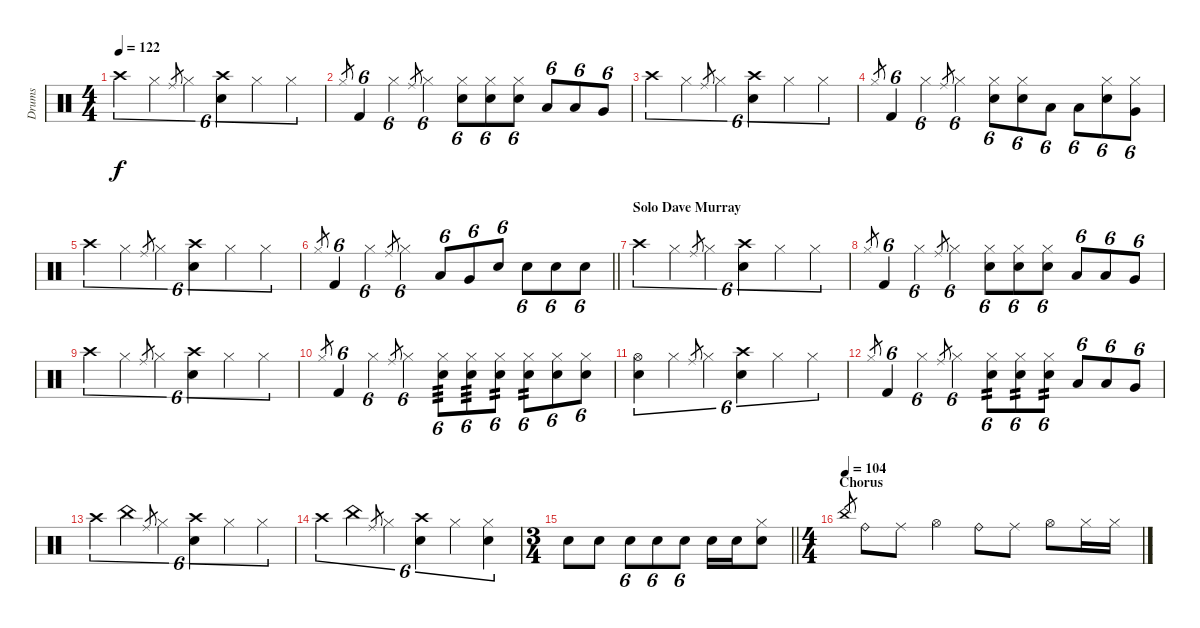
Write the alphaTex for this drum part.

\track ("Drums" "Drums") {instrument percussion}
\staff {score}
\articulation defaults
\ts (4 4)
\tempo 122
\clef neutral
\ks c "Crash high (hit)".4{tu (6 4) dy f} "Hi-Hat (closed)".4{tu (6 4)} "Ride (middle)".8{gr} "Hi-Hat (closed)".4{tu (6 4)}
("Crash high (hit)" "Snare (hit) 2").4{tu (6 4)} "Hi-Hat (closed)".4{tu (6 4)} "Hi-Hat (closed)".4{tu (6 4)} |
"Hi-Hat (closed)".8{gr} "Kick (hit) 2".4{tu (6 4)} "Hi-Hat (closed)".4{tu (6 4)} "Ride (middle)".8{gr} "Hi-Hat (closed)".4{tu (6 4)} ("Hi-Hat (closed)" "Snare (hit) 2").8{tu (6 4)} ("Hi-Hat (closed)" "Snare (hit) 2").8{tu (6 4)} ("Hi-Hat (closed)" "Snare (hit) 2").8{tu (6 4)} "Low Tom (hit)".8{tu (6 4)} "Low Tom (hit)".8{tu (6 4)} "Very Low Tom (hit)".8{tu (6 4)} |
"Crash high (hit)".4{tu (6 4)} "Hi-Hat (closed)".4{tu (6 4)} "Ride (middle)".8{gr} "Hi-Hat (closed)".4{tu (6 4)} ("Crash high (hit)" "Snare (hit) 2").4{tu (6 4)} "Hi-Hat (closed)".4{tu (6 4)} "Hi-Hat (closed)".4{tu (6 4)} |
"Hi-Hat (closed)".8{gr} "Kick (hit) 2".4{tu (6 4)} "Hi-Hat (closed)".4{tu (6 4)} "Ride (middle)".8{gr} "Hi-Hat (closed)".4{tu (6 4)} ("Hi-Hat (closed)" "Snare (hit) 2").8{tu (6 4)} ("Hi-Hat (closed)" "Snare (hit) 2").8{tu (6 4)} "Low Tom (hit)".8{tu (6 4)} "Low Tom (hit)".8{tu (6 4)} ("Hi-Hat (closed)" "Snare (hit) 2").8{tu (6 4)} ("Hi-Hat (closed)" "Very Low Tom (hit)").8{tu (6 4)} |
"Crash high (hit)".4{tu (6 4)} "Hi-Hat (closed)".4{tu (6 4)} "Ride (middle)".8{gr} "Hi-Hat (closed)".4{tu (6 4)} ("Crash high (hit)" "Snare (hit) 2").4{tu (6 4)} "Hi-Hat (closed)".4{tu (6 4)} "Hi-Hat (closed)".4{tu (6 4)} |
\barLineRight lightlight "Hi-Hat (closed)".8{gr} "Kick (hit) 2".4{tu (6 4)} "Hi-Hat (closed)".4{tu (6 4)} "Ride (middle)".8{gr} "Hi-Hat (closed)".4{tu (6 4)} "Low Tom (hit)".8{tu (6 4)} "Very Low Tom (hit)".8{tu (6 4)} "Snare (hit) 2".8{tu (6 4)} "Snare (hit) 2".8{tu (6 4)} "Snare (hit) 2".8{tu (6 4)} "Snare (hit) 2".8{tu (6 4)}
|
\section ("" "Solo Dave Murray")
"Crash high (hit)".4{tu (6 4)} "Hi-Hat (closed)".4{tu (6 4)} "Ride (middle)".8{gr} "Hi-Hat (closed)".4{tu (6 4)} ("Crash high (hit)" "Snare (hit) 2").4{tu (6 4)} "Hi-Hat (closed)".4{tu (6 4)} "Hi-Hat (closed)".4{tu (6 4)} |
"Hi-Hat (closed)".8{gr} "Kick (hit) 2".4{tu (6 4)} "Hi-Hat (closed)".4{tu (6 4)} "Ride (middle)".8{gr} "Hi-Hat (closed)".4{tu (6 4)} ("Hi-Hat (closed)" "Snare (hit) 2").8{tu (6 4)} ("Hi-Hat (closed)" "Snare (hit) 2").8{tu (6 4)} ("Hi-Hat (closed)" "Snare (hit) 2").8{tu (6 4)} "Low Tom (hit)".8{tu (6 4)} "Low Tom (hit)".8{tu (6 4)} "Very Low Tom (hit)".8{tu (6 4)} |
"Crash high (hit)".4{tu (6 4)} "Hi-Hat (closed)".4{tu (6 4)} "Ride (middle)".8{gr} "Hi-Hat (closed)".4{tu (6 4)} ("Crash high (hit)" "Snare (hit) 2").4{tu (6 4)} "Hi-Hat (closed)".4{tu (6 4)} "Hi-Hat (closed)".4{tu (6 4)} |
"Hi-Hat (closed)".8{gr} "Kick (hit) 2".4{tu (6 4)} "Hi-Hat (closed)".4{tu (6 4)} "Ride (middle)".8{gr} "Hi-Hat (closed)".4{tu (6 4)} ("Hi-Hat (closed)" "Snare (hit) 2").8{tu (6 4) tp 3} ("Hi-Hat (closed)" "Snare (hit) 2").8{tu (6 4) tp 3} ("Hi-Hat (closed)" "Snare (hit) 2").8{tu (6 4) tp 2} ("Hi-Hat (closed)" "Snare (hit) 2").8{tu (6 4) tp 2} ("Hi-Hat (closed)" "Snare (hit) 2").8{tu (6 4)} ("Hi-Hat (closed)" "Snare (hit) 2").8{tu (6 4)} |
("Hi-Hat (open)" "Snare (hit) 2").4{tu (6 4)} "Hi-Hat (closed)".4{tu (6 4)} "Ride (middle)".8{gr} "Hi-Hat (closed)".4{tu (6 4)} ("Crash high (hit)" "Snare (hit) 2").4{tu (6 4)} "Hi-Hat (closed)".4{tu (6 4)} "Hi-Hat (closed)".4{tu (6 4)} |
"Hi-Hat (closed)".8{gr} "Kick (hit) 2".4{tu (6 4)} "Hi-Hat (closed)".4{tu (6 4)} "Ride (middle)".8{gr} "Hi-Hat (closed)".4{tu (6 4)} ("Hi-Hat (closed)" "Snare (hit) 2").8{tu (6 4) tp 2} ("Hi-Hat (closed)" "Snare (hit) 2").8{tu (6 4) tp 2} ("Hi-Hat (closed)" "Snare (hit) 2").8{tu (6 4) tp 2} "Low Tom (hit)".8{tu (6 4)} "Low Tom (hit)".8{tu (6 4)} "Very Low Tom (hit)".8{tu (6 4)} |
"Crash high (hit)".4{tu (6 4)} "China (hit)".4{tu (6 4)} "Ride (middle)".8{gr} "Hi-Hat (closed)".4{tu (6 4)} ("Crash high (hit)" "Snare (hit) 2").4{tu (6 4)} "Hi-Hat (closed)".4{tu (6 4)} "Hi-Hat (closed)".4{tu (6 4)} |
"Crash high (hit)".4{tu (6 4)} "China (hit)".4{tu (6 4)} "Ride (middle)".8{gr} "Hi-Hat (closed)".4{tu (6 4)} ("Crash high (hit)" "Snare (hit) 2").4{tu (6 4)} "Hi-Hat (closed)".4{tu (6 4)} ("Hi-Hat (closed)" "Snare (hit) 2").4{tu (6 4)} |
\ts (3 4)
\barLineRight lightlight "Snare (hit) 2".8 "Snare (hit) 2".8 "Snare (hit) 2".8{tu (6 4)} "Snare (hit) 2".8{tu (6 4)} "Snare (hit) 2".8{tu (6 4)} "Snare (hit) 2".16 "Snare (hit) 2".16
("Hi-Hat (closed)" "Snare (hit) 2").8 |
\ts (4 4)
\section ("" "Chorus")
\tempo (104)
"China (hit)".8{gr} "Ride (bell)".8 "Ride (middle)".8 "Hi-Hat (open)".4 "Ride (bell)".8 "Ride (middle)".8 "Hi-Hat (open)".8 "Hi-Hat (closed)".16 "Hi-Hat (closed)".16
